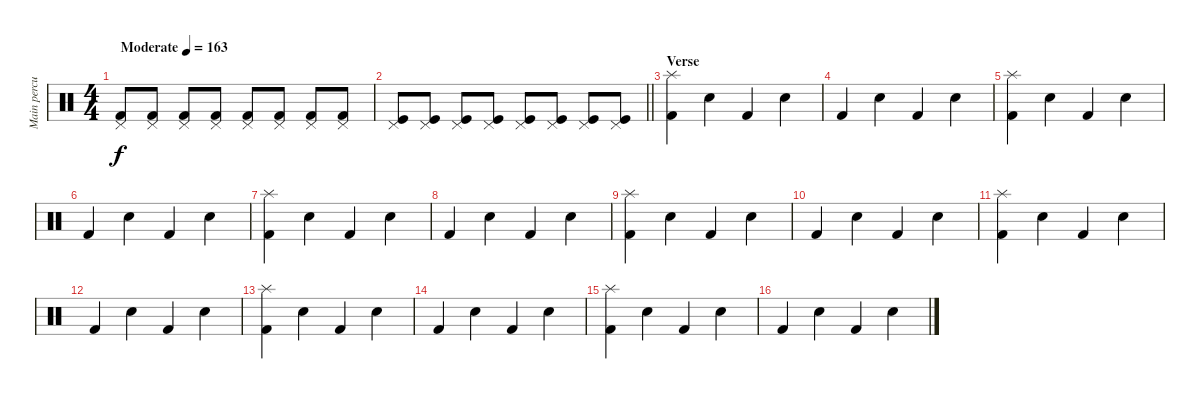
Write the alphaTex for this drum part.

\track ("Main percussion" "Main percu") {instrument percussion}
\staff {score}
\articulation defaults
\ts (4 4)
\tempo (163 "Moderate")
\clef neutral
\ks c
("Kick (hit) 2" "Pedal Hi-Hat (hit)").8{dy f} ("Kick (hit) 2" "Pedal Hi-Hat (hit)").8 ("Kick (hit) 2" "Pedal Hi-Hat (hit)").8 ("Kick (hit) 2" "Pedal Hi-Hat (hit)").8 ("Kick (hit) 2" "Pedal Hi-Hat (hit)").8 ("Kick (hit) 2" "Pedal Hi-Hat (hit)").8 ("Kick (hit) 2" "Pedal Hi-Hat (hit)").8 ("Kick (hit) 2" "Pedal Hi-Hat (hit)").8 |
\barLineRight lightlight
("Kick (hit)" "Pedal Hi-Hat (hit)").8 ("Kick (hit)" "Pedal Hi-Hat (hit)").8 ("Kick (hit)" "Pedal Hi-Hat (hit)").8 ("Kick (hit)" "Pedal Hi-Hat (hit)").8 ("Kick (hit)" "Pedal Hi-Hat (hit)").8 ("Kick (hit)" "Pedal Hi-Hat (hit)").8 ("Kick (hit)" "Pedal Hi-Hat (hit)").8 ("Kick (hit)" "Pedal Hi-Hat (hit)").8 |
\section ("" "Verse")
("Kick (hit) 2" "Splash (hit)").4 "Electric Snare (hit)".4 "Kick (hit) 2".4 "Electric Snare (hit)".4 |
"Kick (hit) 2".4 "Electric Snare (hit)".4 "Kick (hit) 2".4 "Electric Snare (hit)".4 |
("Kick (hit) 2" "Splash (hit)").4 "Electric Snare (hit)".4 "Kick (hit) 2".4 "Electric Snare (hit)".4 |
"Kick (hit) 2".4 "Electric Snare (hit)".4 "Kick (hit) 2".4 "Electric Snare (hit)".4 |
("Kick (hit) 2" "Splash (hit)").4 "Electric Snare (hit)".4 "Kick (hit) 2".4 "Electric Snare (hit)".4 |
"Kick (hit) 2".4 "Electric Snare (hit)".4 "Kick (hit) 2".4 "Electric Snare (hit)".4 |
("Kick (hit) 2" "Splash (hit)").4 "Electric Snare (hit)".4 "Kick (hit) 2".4 "Electric Snare (hit)".4 |
"Kick (hit) 2".4 "Electric Snare (hit)".4 "Kick (hit) 2".4 "Electric Snare (hit)".4 |
("Kick (hit) 2" "Splash (hit)").4 "Electric Snare (hit)".4 "Kick (hit) 2".4 "Electric Snare (hit)".4 |
"Kick (hit) 2".4 "Electric Snare (hit)".4 "Kick (hit) 2".4 "Electric Snare (hit)".4 |
("Kick (hit) 2" "Splash (hit)").4 "Electric Snare (hit)".4 "Kick (hit) 2".4 "Electric Snare (hit)".4 |
"Kick (hit) 2".4 "Electric Snare (hit)".4 "Kick (hit) 2".4 "Electric Snare (hit)".4 |
("Kick (hit) 2" "Splash (hit)").4 "Electric Snare (hit)".4 "Kick (hit) 2".4 "Electric Snare (hit)".4 |
"Kick (hit) 2".4 "Electric Snare (hit)".4 "Kick (hit) 2".4 "Electric Snare (hit)".4
